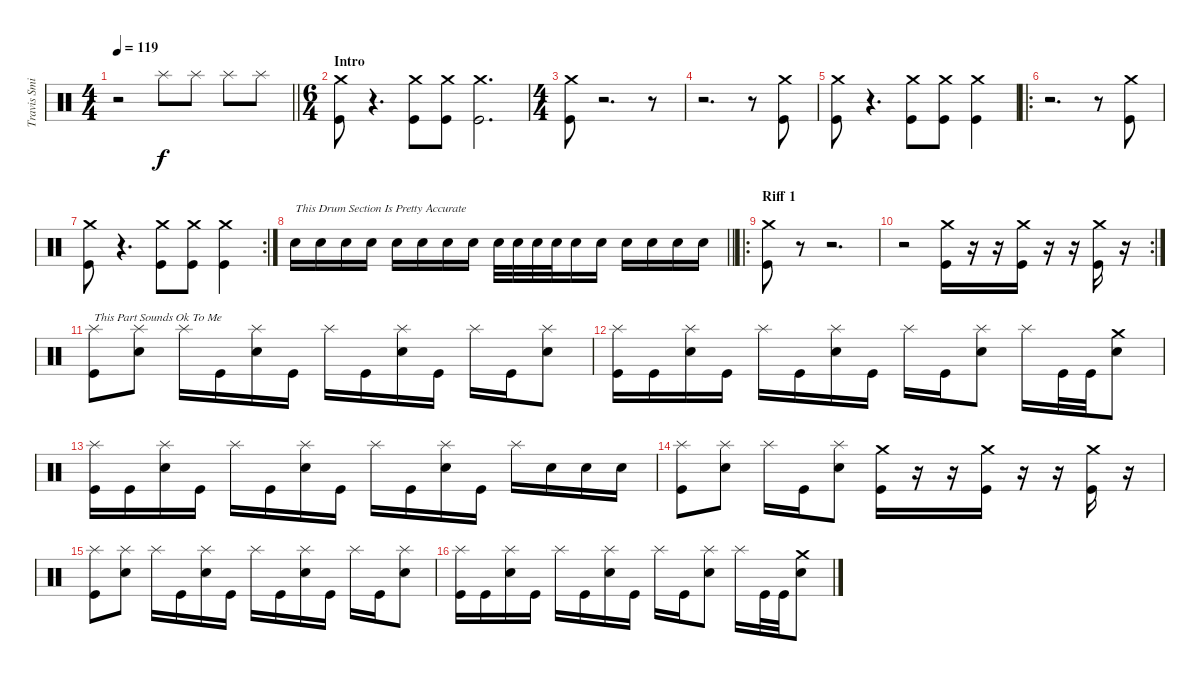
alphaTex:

\track ("Travis Smith (Drums)" "Travis Smi") {instrument percussion}
\staff {score}
\articulation defaults
\ts (4 4)
\tempo 119
\clef neutral
\barLineRight lightlight
\ks c
r.2{dy f} "Splash (hit)".8 "Splash (hit)".8 "Splash (hit)".8 "Splash (hit)".8 |
\ts (6 4)
\section ("" "Intro")
("Crash medium (hit)" "Kick (hit)").8 r.4{d} ("Crash medium (hit)" "Kick (hit)").8 ("Crash medium (hit)" "Kick (hit)").8 ("Crash medium (hit)" "Kick (hit)").2{d} |
\ts (4 4)
("Crash medium (hit)" "Kick (hit)").8 r.2{d} r.8 |
r.2{d} r.8 ("Crash medium (hit)" "Kick (hit)").8 |
("Crash medium (hit)" "Kick (hit)").8 r.4{d} ("Crash medium (hit)" "Kick (hit)").8 ("Crash medium (hit)" "Kick (hit)").8 ("Crash medium (hit)" "Kick (hit)").4 |
\ro
r.2{d} r.8 ("Crash medium (hit)" "Kick (hit)").8 |
\rc 2
("Crash medium (hit)" "Kick (hit)").8 r.4{d} ("Crash medium (hit)" "Kick (hit)").8 ("Crash medium (hit)" "Kick (hit)").8 ("Crash medium (hit)" "Kick (hit)").4 |
\barLineRight lightlight "Electric Snare (hit)".16{txt "This Drum Section Is Pretty Accurate"} "Electric Snare (hit)".16 "Electric Snare (hit)".16 "Electric Snare (hit)".16 "Electric Snare (hit)".16 "Electric Snare (hit)".16 "Electric Snare (hit)".16 "Electric Snare (hit)".16 "Electric Snare (hit)".32 "Electric Snare (hit)".32 "Electric Snare (hit)".32 "Electric Snare (hit)".32 "Electric Snare (hit)".16 "Electric Snare (hit)".16 "Electric Snare (hit)".16 "Electric Snare (hit)".16 "Electric Snare (hit)".16 "Electric Snare (hit)".16
|
\ro
\section ("" "Riff 1")
("Crash medium (hit)" "Kick (hit)").8 r.8 r.2{d} |
\rc 2
r.2 ("Crash medium (hit)" "Kick (hit)").16 r.16 r.16 ("Crash medium (hit)" "Kick (hit)").16 r.16 r.16 ("Crash medium (hit)" "Kick (hit)").16 r.16 |
("Splash (hit)" "Kick (hit)").8{txt "This Part Sounds Ok To Me"} ("Splash (hit)" "Electric Snare (hit)").8 "Splash (hit)".16 "Kick (hit)".16 ("Splash (hit)" "Electric Snare (hit)").16 "Kick (hit)".16 "Splash (hit)".16 "Kick (hit)".16 ("Splash (hit)" "Electric Snare (hit)").16 "Kick (hit)".16 "Splash (hit)".16 "Kick (hit)".16 ("Splash (hit)" "Electric Snare (hit)").8 |
("Splash (hit)" "Kick (hit)").16 "Kick (hit)".16 ("Splash (hit)" "Electric Snare (hit)").16 "Kick (hit)".16 "Splash (hit)".16 "Kick (hit)".16 ("Splash (hit)" "Electric Snare (hit)").16 "Kick (hit)".16 "Splash (hit)".16 "Kick (hit)".16 ("Splash (hit)" "Electric Snare (hit)").8 "Splash (hit)".16 "Kick (hit)".32 "Kick (hit)".32 ("Crash medium (hit)" "Electric Snare (hit)").8 |
("Splash (hit)" "Kick (hit)").16 "Kick (hit)".16 ("Splash (hit)" "Electric Snare (hit)").16 "Kick (hit)".16 "Splash (hit)".16 "Kick (hit)".16 ("Splash (hit)" "Electric Snare (hit)").16 "Kick (hit)".16 "Splash (hit)".16 "Kick (hit)".16 ("Splash (hit)" "Electric Snare (hit)").16 "Kick (hit)".16 "Splash (hit)".16 "Electric Snare (hit)".16 "Electric Snare (hit)".16 "Electric Snare (hit)".16 |
("Splash (hit)" "Kick (hit)").8 ("Splash (hit)" "Electric Snare (hit)").8 "Splash (hit)".16 "Kick (hit)".16 ("Splash (hit)" "Electric Snare (hit)").8 ("Crash medium (hit)" "Kick (hit)").16 r.16 r.16 ("Crash medium (hit)" "Kick (hit)").16 r.16 r.16 ("Crash medium (hit)" "Kick (hit)").16 r.16 |
("Splash (hit)" "Kick (hit)").8 ("Splash (hit)" "Electric Snare (hit)").8 "Splash (hit)".16 "Kick (hit)".16 ("Splash (hit)" "Electric Snare (hit)").16 "Kick (hit)".16 "Splash (hit)".16 "Kick (hit)".16 ("Splash (hit)" "Electric Snare (hit)").16 "Kick (hit)".16 "Splash (hit)".16 "Kick (hit)".16 ("Splash (hit)" "Electric Snare (hit)").8 |
("Splash (hit)" "Kick (hit)").16 "Kick (hit)".16 ("Splash (hit)" "Electric Snare (hit)").16 "Kick (hit)".16 "Splash (hit)".16 "Kick (hit)".16 ("Splash (hit)" "Electric Snare (hit)").16 "Kick (hit)".16 "Splash (hit)".16 "Kick (hit)".16 ("Splash (hit)" "Electric Snare (hit)").8 "Splash (hit)".16 "Kick (hit)".32 "Kick (hit)".32 ("Crash medium (hit)" "Electric Snare (hit)").8
